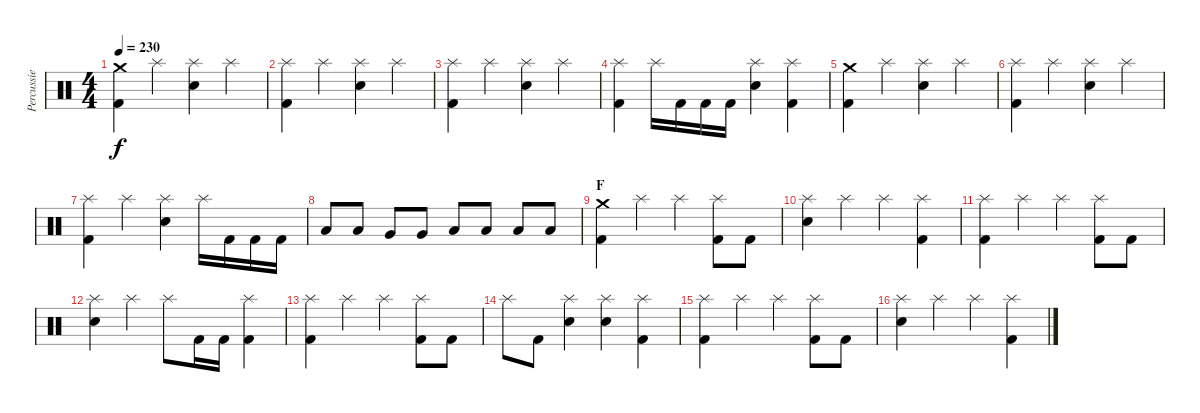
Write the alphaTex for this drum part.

\track ("Percussie" "Percussie") {instrument percussion}
\staff {score}
\articulation defaults
\ts (4 4)
\tempo 230
\clef neutral
\ks c
("Crash medium (hit)" "Kick (hit) 2").4{dy f} "Splash (hit)".4 ("Splash (hit)" "Electric Snare (hit)").4 "Splash (hit)".4 |
("Splash (hit)" "Kick (hit) 2").4 "Splash (hit)".4 ("Splash (hit)" "Electric Snare (hit)").4 "Splash (hit)".4 |
("Splash (hit)" "Kick (hit) 2").4 "Splash (hit)".4 ("Splash (hit)" "Electric Snare (hit)").4 "Splash (hit)".4 |
("Splash (hit)" "Kick (hit) 2").4 "Splash (hit)".16 "Kick (hit) 2".16 "Kick (hit) 2".16 "Kick (hit) 2".16 ("Splash (hit)" "Electric Snare (hit)").4 ("Splash (hit)" "Kick (hit) 2").4 |
("Crash medium (hit)" "Kick (hit) 2").4 "Splash (hit)".4 ("Splash (hit)" "Electric Snare (hit)").4 "Splash (hit)".4 |
("Splash (hit)" "Kick (hit) 2").4 "Splash (hit)".4 ("Splash (hit)" "Electric Snare (hit)").4 "Splash (hit)".4 |
("Splash (hit)" "Kick (hit) 2").4 "Splash (hit)".4 ("Splash (hit)" "Electric Snare (hit)").4 "Splash (hit)".16 "Kick (hit) 2".16 "Kick (hit) 2".16 "Kick (hit) 2".16 |
"Low Tom (hit)".8 "Low Tom (hit)".8 "Very Low Tom (hit)".8 "Very Low Tom (hit)".8 "Low Floor Tom (hit)".8 "Low Floor Tom (hit)".8 "Low Floor Tom (hit)".8 "Low Floor Tom (hit)".8 |
\section ("" "F")
("Crash medium (hit)" "Kick (hit) 2").4 "Splash (hit)".4 "Splash (hit)".4 ("Splash (hit)" "Kick (hit) 2").8 "Kick (hit) 2".8 |
("Splash (hit)" "Electric Snare (hit)").4 "Splash (hit)".4 "Splash (hit)".4 ("Splash (hit)" "Kick (hit) 2").4 |
("Splash (hit)" "Kick (hit) 2").4 "Splash (hit)".4 "Splash (hit)".4 ("Splash (hit)" "Kick (hit) 2").8 "Kick (hit) 2".8 |
("Splash (hit)" "Electric Snare (hit)").4 "Splash (hit)".4 "Splash (hit)".8 "Kick (hit) 2".16 "Kick (hit) 2".16 ("Splash (hit)" "Kick (hit) 2").4 |
("Splash (hit)" "Kick (hit) 2").4 "Splash (hit)".4 "Splash (hit)".4 ("Splash (hit)" "Kick (hit) 2").8 "Kick (hit) 2".8 |
"Splash (hit)".8 "Kick (hit) 2".8 ("Splash (hit)" "Electric Snare (hit)").4 ("Splash (hit)" "Electric Snare (hit)").4 ("Splash (hit)" "Kick (hit) 2").4 |
("Splash (hit)" "Kick (hit) 2").4 "Splash (hit)".4 "Splash (hit)".4 ("Splash (hit)" "Kick (hit) 2").8 "Kick (hit) 2".8 |
("Splash (hit)" "Electric Snare (hit)").4 "Splash (hit)".4 "Splash (hit)".4 ("Splash (hit)" "Kick (hit) 2").4
